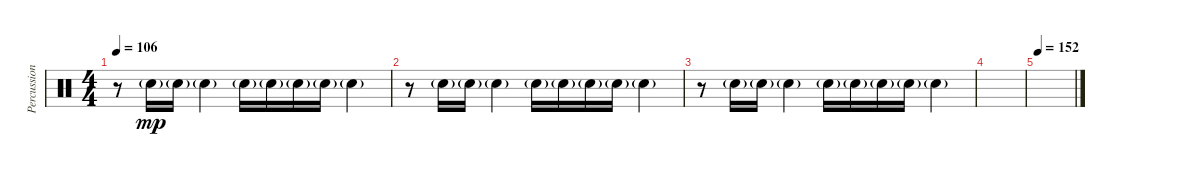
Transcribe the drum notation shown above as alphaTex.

\track ("Percussion" "Percussion") {instrument percussion}
\staff {score}
\articulation defaults
\ts (4 4)
\tempo 106
\clef neutral
\ks c
r.8{dy mp} "Snare (hit) 2"{g}.16 "Snare (hit) 2"{g}.16 "Snare (hit) 2"{g}.4 "Snare (hit) 2"{g}.16 "Snare (hit) 2"{g}.16 "Snare (hit) 2"{g}.16 "Snare (hit) 2"{g}.16 "Snare (hit) 2"{g}.4 |
r.8 "Snare (hit) 2"{g}.16 "Snare (hit) 2"{g}.16 "Snare (hit) 2"{g}.4 "Snare (hit) 2"{g}.16 "Snare (hit) 2"{g}.16 "Snare (hit) 2"{g}.16 "Snare (hit) 2"{g}.16 "Snare (hit) 2"{g}.4 |
r.8 "Snare (hit) 2"{g}.16 "Snare (hit) 2"{g}.16 "Snare (hit) 2"{g}.4 "Snare (hit) 2"{g}.16 "Snare (hit) 2"{g}.16 "Snare (hit) 2"{g}.16 "Snare (hit) 2"{g}.16 "Snare (hit) 2"{g}.4 |
|
\tempo 152
